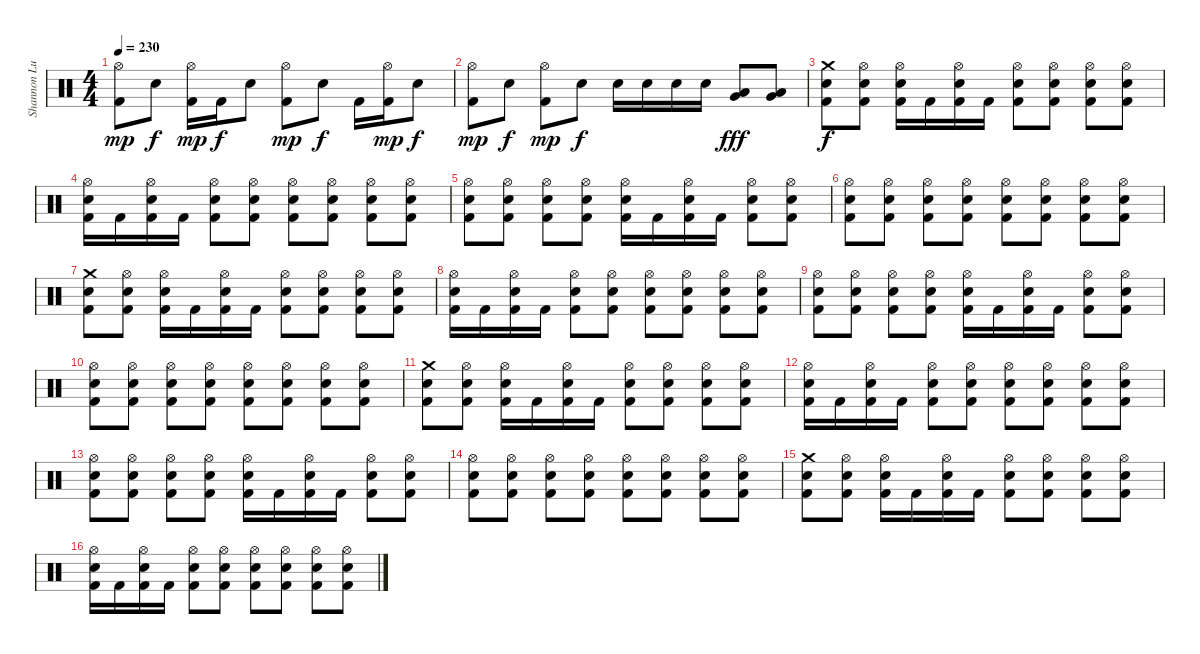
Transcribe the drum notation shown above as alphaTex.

\track ("Shannon Lucas" "Shannon Lu") {instrument percussion}
\staff {score}
\articulation defaults
\ts (4 4)
\tempo 230
\clef neutral
\ks c
("Hi-Hat (open)" "Kick (hit) 2").8{dy mp} "Electric Snare (hit)".8{dy f} ("Hi-Hat (open)" "Kick (hit) 2").16{dy mp} "Kick (hit) 2".16{dy f} "Electric Snare (hit)".8 ("Hi-Hat (open)" "Kick (hit) 2").8{dy mp} "Electric Snare (hit)".8{dy f} "Kick (hit) 2".16 ("Hi-Hat (open)" "Kick (hit) 2").16{dy mp} "Electric Snare (hit)".8{dy f} |
("Hi-Hat (open)" "Kick (hit) 2").8{dy mp} "Electric Snare (hit)".8{dy f} ("Hi-Hat (open)" "Kick (hit) 2").8{dy mp} "Electric Snare (hit)".8{dy f} "Electric Snare (hit)".16 "Electric Snare (hit)".16 "Electric Snare (hit)".16 "Electric Snare (hit)".16 ("Very Low Tom (hit)" "Low Tom (hit)").8{dy fff} ("Very Low Tom (hit)" "Low Tom (hit)").8 |
("Crash medium (hit)" "Electric Snare (hit)" "Kick (hit) 2").8{dy f} ("Hi-Hat (open)" "Electric Snare (hit)" "Kick (hit) 2").8 ("Hi-Hat (open)" "Electric Snare (hit)" "Kick (hit) 2").16 "Kick (hit) 2".16 ("Hi-Hat (open)" "Electric Snare (hit)" "Kick (hit) 2").16 "Kick (hit) 2".16 ("Hi-Hat (open)" "Electric Snare (hit)" "Kick (hit) 2").8 ("Hi-Hat (open)" "Electric Snare (hit)" "Kick (hit) 2").8 ("Hi-Hat (open)" "Electric Snare (hit)" "Kick (hit) 2").8 ("Hi-Hat (open)" "Electric Snare (hit)" "Kick (hit) 2").8 |
("Hi-Hat (open)" "Electric Snare (hit)" "Kick (hit) 2").16 "Kick (hit) 2".16 ("Hi-Hat (open)" "Electric Snare (hit)" "Kick (hit) 2").16 "Kick (hit) 2".16 ("Hi-Hat (open)" "Electric Snare (hit)" "Kick (hit) 2").8 ("Hi-Hat (open)" "Electric Snare (hit)" "Kick (hit) 2").8 ("Hi-Hat (open)" "Electric Snare (hit)" "Kick (hit) 2").8 ("Hi-Hat (open)" "Electric Snare (hit)" "Kick (hit) 2").8 ("Hi-Hat (open)" "Electric Snare (hit)" "Kick (hit) 2").8 ("Hi-Hat (open)" "Electric Snare (hit)" "Kick (hit) 2").8 |
("Hi-Hat (open)" "Electric Snare (hit)" "Kick (hit) 2").8 ("Hi-Hat (open)" "Electric Snare (hit)" "Kick (hit) 2").8 ("Hi-Hat (open)" "Electric Snare (hit)" "Kick (hit) 2").8 ("Hi-Hat (open)" "Electric Snare (hit)" "Kick (hit) 2").8 ("Hi-Hat (open)" "Electric Snare (hit)" "Kick (hit) 2").16 "Kick (hit) 2".16 ("Hi-Hat (open)" "Electric Snare (hit)" "Kick (hit) 2").16 "Kick (hit) 2".16 ("Hi-Hat (open)" "Electric Snare (hit)" "Kick (hit) 2").8 ("Hi-Hat (open)" "Electric Snare (hit)" "Kick (hit) 2").8 |
("Hi-Hat (open)" "Electric Snare (hit)" "Kick (hit) 2").8 ("Hi-Hat (open)" "Electric Snare (hit)" "Kick (hit) 2").8 ("Hi-Hat (open)" "Electric Snare (hit)" "Kick (hit) 2").8 ("Hi-Hat (open)" "Electric Snare (hit)" "Kick (hit) 2").8 ("Hi-Hat (open)" "Electric Snare (hit)" "Kick (hit) 2").8 ("Hi-Hat (open)" "Electric Snare (hit)" "Kick (hit) 2").8 ("Hi-Hat (open)" "Electric Snare (hit)" "Kick (hit) 2").8 ("Hi-Hat (open)" "Electric Snare (hit)" "Kick (hit) 2").8 |
("Crash medium (hit)" "Electric Snare (hit)" "Kick (hit) 2").8 ("Hi-Hat (open)" "Electric Snare (hit)" "Kick (hit) 2").8 ("Hi-Hat (open)" "Electric Snare (hit)" "Kick (hit) 2").16 "Kick (hit) 2".16 ("Hi-Hat (open)" "Electric Snare (hit)" "Kick (hit) 2").16 "Kick (hit) 2".16 ("Hi-Hat (open)" "Electric Snare (hit)" "Kick (hit) 2").8 ("Hi-Hat (open)" "Electric Snare (hit)" "Kick (hit) 2").8 ("Hi-Hat (open)" "Electric Snare (hit)" "Kick (hit) 2").8 ("Hi-Hat (open)" "Electric Snare (hit)" "Kick (hit) 2").8 |
("Hi-Hat (open)" "Electric Snare (hit)" "Kick (hit) 2").16 "Kick (hit) 2".16 ("Hi-Hat (open)" "Electric Snare (hit)" "Kick (hit) 2").16 "Kick (hit) 2".16 ("Hi-Hat (open)" "Electric Snare (hit)" "Kick (hit) 2").8 ("Hi-Hat (open)" "Electric Snare (hit)" "Kick (hit) 2").8 ("Hi-Hat (open)" "Electric Snare (hit)" "Kick (hit) 2").8 ("Hi-Hat (open)" "Electric Snare (hit)" "Kick (hit) 2").8 ("Hi-Hat (open)" "Electric Snare (hit)" "Kick (hit) 2").8 ("Hi-Hat (open)" "Electric Snare (hit)" "Kick (hit) 2").8 |
("Hi-Hat (open)" "Electric Snare (hit)" "Kick (hit) 2").8 ("Hi-Hat (open)" "Electric Snare (hit)" "Kick (hit) 2").8 ("Hi-Hat (open)" "Electric Snare (hit)" "Kick (hit) 2").8 ("Hi-Hat (open)" "Electric Snare (hit)" "Kick (hit) 2").8 ("Hi-Hat (open)" "Electric Snare (hit)" "Kick (hit) 2").16 "Kick (hit) 2".16 ("Hi-Hat (open)" "Electric Snare (hit)" "Kick (hit) 2").16 "Kick (hit) 2".16 ("Hi-Hat (open)" "Electric Snare (hit)" "Kick (hit) 2").8 ("Hi-Hat (open)" "Electric Snare (hit)" "Kick (hit) 2").8 |
("Hi-Hat (open)" "Electric Snare (hit)" "Kick (hit) 2").8 ("Hi-Hat (open)" "Electric Snare (hit)" "Kick (hit) 2").8 ("Hi-Hat (open)" "Electric Snare (hit)" "Kick (hit) 2").8 ("Hi-Hat (open)" "Electric Snare (hit)" "Kick (hit) 2").8 ("Hi-Hat (open)" "Electric Snare (hit)" "Kick (hit) 2").8 ("Hi-Hat (open)" "Electric Snare (hit)" "Kick (hit) 2").8 ("Hi-Hat (open)" "Electric Snare (hit)" "Kick (hit) 2").8 ("Hi-Hat (open)" "Electric Snare (hit)" "Kick (hit) 2").8 |
("Crash medium (hit)" "Electric Snare (hit)" "Kick (hit) 2").8 ("Hi-Hat (open)" "Electric Snare (hit)" "Kick (hit) 2").8 ("Hi-Hat (open)" "Electric Snare (hit)" "Kick (hit) 2").16 "Kick (hit) 2".16 ("Hi-Hat (open)" "Electric Snare (hit)" "Kick (hit) 2").16 "Kick (hit) 2".16 ("Hi-Hat (open)" "Electric Snare (hit)" "Kick (hit) 2").8 ("Hi-Hat (open)" "Electric Snare (hit)" "Kick (hit) 2").8 ("Hi-Hat (open)" "Electric Snare (hit)" "Kick (hit) 2").8 ("Hi-Hat (open)" "Electric Snare (hit)" "Kick (hit) 2").8 |
("Hi-Hat (open)" "Electric Snare (hit)" "Kick (hit) 2").16 "Kick (hit) 2".16 ("Hi-Hat (open)" "Electric Snare (hit)" "Kick (hit) 2").16 "Kick (hit) 2".16 ("Hi-Hat (open)" "Electric Snare (hit)" "Kick (hit) 2").8 ("Hi-Hat (open)" "Electric Snare (hit)" "Kick (hit) 2").8 ("Hi-Hat (open)" "Electric Snare (hit)" "Kick (hit) 2").8 ("Hi-Hat (open)" "Electric Snare (hit)" "Kick (hit) 2").8 ("Hi-Hat (open)" "Electric Snare (hit)" "Kick (hit) 2").8 ("Hi-Hat (open)" "Electric Snare (hit)" "Kick (hit) 2").8 |
("Hi-Hat (open)" "Electric Snare (hit)" "Kick (hit) 2").8 ("Hi-Hat (open)" "Electric Snare (hit)" "Kick (hit) 2").8 ("Hi-Hat (open)" "Electric Snare (hit)" "Kick (hit) 2").8 ("Hi-Hat (open)" "Electric Snare (hit)" "Kick (hit) 2").8 ("Hi-Hat (open)" "Electric Snare (hit)" "Kick (hit) 2").16 "Kick (hit) 2".16 ("Hi-Hat (open)" "Electric Snare (hit)" "Kick (hit) 2").16 "Kick (hit) 2".16 ("Hi-Hat (open)" "Electric Snare (hit)" "Kick (hit) 2").8 ("Hi-Hat (open)" "Electric Snare (hit)" "Kick (hit) 2").8 |
("Hi-Hat (open)" "Electric Snare (hit)" "Kick (hit) 2").8 ("Hi-Hat (open)" "Electric Snare (hit)" "Kick (hit) 2").8 ("Hi-Hat (open)" "Electric Snare (hit)" "Kick (hit) 2").8 ("Hi-Hat (open)" "Electric Snare (hit)" "Kick (hit) 2").8 ("Hi-Hat (open)" "Electric Snare (hit)" "Kick (hit) 2").8 ("Hi-Hat (open)" "Electric Snare (hit)" "Kick (hit) 2").8 ("Hi-Hat (open)" "Electric Snare (hit)" "Kick (hit) 2").8 ("Hi-Hat (open)" "Electric Snare (hit)" "Kick (hit) 2").8 |
("Crash medium (hit)" "Electric Snare (hit)" "Kick (hit) 2").8 ("Hi-Hat (open)" "Electric Snare (hit)" "Kick (hit) 2").8 ("Hi-Hat (open)" "Electric Snare (hit)" "Kick (hit) 2").16 "Kick (hit) 2".16 ("Hi-Hat (open)" "Electric Snare (hit)" "Kick (hit) 2").16 "Kick (hit) 2".16 ("Hi-Hat (open)" "Electric Snare (hit)" "Kick (hit) 2").8 ("Hi-Hat (open)" "Electric Snare (hit)" "Kick (hit) 2").8 ("Hi-Hat (open)" "Electric Snare (hit)" "Kick (hit) 2").8 ("Hi-Hat (open)" "Electric Snare (hit)" "Kick (hit) 2").8 |
("Hi-Hat (open)" "Electric Snare (hit)" "Kick (hit) 2").16 "Kick (hit) 2".16 ("Hi-Hat (open)" "Electric Snare (hit)" "Kick (hit) 2").16 "Kick (hit) 2".16 ("Hi-Hat (open)" "Electric Snare (hit)" "Kick (hit) 2").8 ("Hi-Hat (open)" "Electric Snare (hit)" "Kick (hit) 2").8 ("Hi-Hat (open)" "Electric Snare (hit)" "Kick (hit) 2").8 ("Hi-Hat (open)" "Electric Snare (hit)" "Kick (hit) 2").8 ("Hi-Hat (open)" "Electric Snare (hit)" "Kick (hit) 2").8 ("Hi-Hat (open)" "Electric Snare (hit)" "Kick (hit) 2").8
